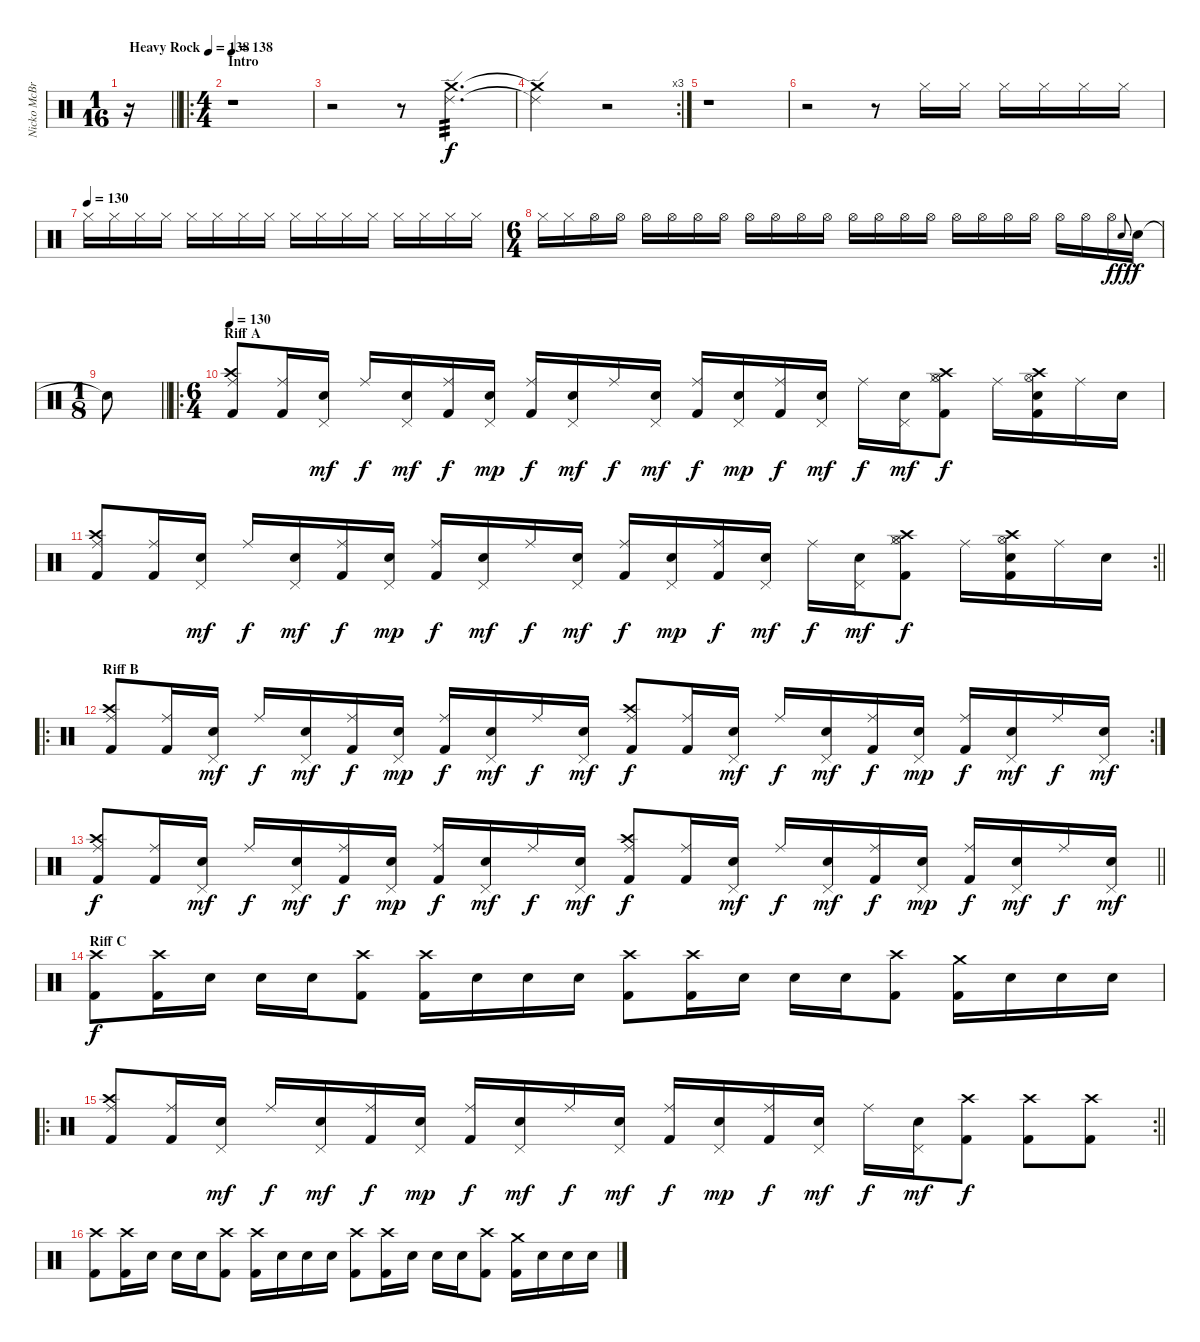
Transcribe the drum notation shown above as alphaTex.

\track ("Nicko McBrain" "Nicko McBr") {instrument percussion}
\staff {score}
\articulation defaults
\ts (1 16)
\tempo (138 "Heavy Rock")
\clef neutral
\barLineRight lightlight
\ks c
r.16{dy f} |
\ro
\ts (4 4)
\section ("" "Intro")
\tempo 138
r.1 |
r.2{volume 3} r.8 ("Ride (edge) 2" "Crash medium (hit)").4{d tp 3 volume 12} |
\rc 3
("Ride (edge) 2"{t} "Crash medium (hit)"{t}).2 r.2 |
r.1 |
r.2{volume 10} r.8 "Hi-Hat (closed)".16{volume 14} "Hi-Hat (closed)".16 "Hi-Hat (closed)".16 "Hi-Hat (closed)".16 "Hi-Hat (closed)".16 "Hi-Hat (closed)".16 |
\tempo (130)
"Hi-Hat (closed)".16 "Hi-Hat (closed)".16 "Hi-Hat (closed)".16 "Hi-Hat (closed)".16 "Hi-Hat (closed)".16 "Hi-Hat (closed)".16 "Hi-Hat (closed)".16 "Hi-Hat (closed)".16 "Hi-Hat (closed)".16 "Hi-Hat (closed)".16 "Hi-Hat (closed)".16 "Hi-Hat (closed)".16 "Hi-Hat (closed)".16 "Hi-Hat (closed)".16 "Hi-Hat (closed)".16 "Hi-Hat (closed)".16 |
\ts (6 4)
"Hi-Hat (closed)".16{volume 14} "Hi-Hat (closed)".16 "Hi-Hat (open)".16 "Hi-Hat (open)".16 "Hi-Hat (open)".16 "Hi-Hat (open)".16 "Hi-Hat (open)".16 "Hi-Hat (open)".16 "Hi-Hat (open)".16 "Hi-Hat (open)".16 "Hi-Hat (open)".16 "Hi-Hat (open)".16 "Hi-Hat (open)".16 "Hi-Hat (open)".16 "Hi-Hat (open)".16 "Hi-Hat (open)".16 "Hi-Hat (open)".16 "Hi-Hat (open)".16 "Hi-Hat (open)".16 "Hi-Hat (open)".16 "Hi-Hat (open)".16 "Hi-Hat (open)".16 "Hi-Hat (open)".16 "Snare (hit) 2".8{gr onbeat dy fff} "Snare (hit) 2".16{dy f} |
\ts (1 8)
\barLineRight lightlight "Snare (hit) 2"{t}.8
|
\ro
\ts (6 4)
\section ("" "Riff A")
\tempo 130
("Ride (middle)" "Crash high (hit)" "Kick (hit) 2").8 ("Ride (middle)" "Kick (hit) 2").16 ("Pedal Hi-Hat (hit)" "Snare (hit) 2").16{dy mf} "Ride (middle)".16{dy f} ("Pedal Hi-Hat (hit)" "Snare (hit) 2").16{dy mf} ("Ride (middle)" "Kick (hit) 2").16{dy f} ("Pedal Hi-Hat (hit)" "Snare (hit) 2").16{dy mp} ("Ride (middle)" "Kick (hit) 2").16{dy f} ("Pedal Hi-Hat (hit)" "Snare (hit) 2").16{dy mf} "Ride (middle)".16{dy f} ("Pedal Hi-Hat (hit)" "Snare (hit) 2").16{dy mf} ("Ride (middle)" "Kick (hit) 2").16{dy f} ("Pedal Hi-Hat (hit)" "Snare (hit) 2").16{dy mp} ("Ride (middle)" "Kick (hit) 2").16{dy f} ("Pedal Hi-Hat (hit)" "Snare (hit) 2").16{dy mf} "Ride (middle)".16{dy f} ("Pedal Hi-Hat (hit)" "Snare (hit) 2").16{dy mf} ("Hi-Hat (open)" "Hi-Hat (closed)" "Crash high (hit)" "Kick (hit) 2").8{dy f} "Ride (middle)".16 ("Hi-Hat (open)" "Snare (hit) 2" "Crash high (hit)" "Kick (hit) 2").16 "Ride (middle)".16 "Snare (hit) 2".16 |
\rc 2
\barLineRight lightlight
("Ride (middle)" "Crash high (hit)" "Kick (hit) 2").8 ("Ride (middle)" "Kick (hit) 2").16 ("Pedal Hi-Hat (hit)" "Snare (hit) 2").16{dy mf} "Ride (middle)".16{dy f} ("Pedal Hi-Hat (hit)" "Snare (hit) 2").16{dy mf} ("Ride (middle)" "Kick (hit) 2").16{dy f} ("Pedal Hi-Hat (hit)" "Snare (hit) 2").16{dy mp} ("Ride (middle)" "Kick (hit) 2").16{dy f} ("Pedal Hi-Hat (hit)" "Snare (hit) 2").16{dy mf} "Ride (middle)".16{dy f} ("Pedal Hi-Hat (hit)" "Snare (hit) 2").16{dy mf} ("Ride (middle)" "Kick (hit) 2").16{dy f} ("Pedal Hi-Hat (hit)" "Snare (hit) 2").16{dy mp} ("Ride (middle)" "Kick (hit) 2").16{dy f} ("Pedal Hi-Hat (hit)" "Snare (hit) 2").16{dy mf} "Ride (middle)".16{dy f} ("Pedal Hi-Hat (hit)" "Snare (hit) 2").16{dy mf} ("Hi-Hat (open)" "Hi-Hat (closed)" "Crash high (hit)" "Kick (hit) 2").8{dy f} "Ride (middle)".16 ("Hi-Hat (open)" "Snare (hit) 2" "Crash high (hit)" "Kick (hit) 2").16 "Ride (middle)".16 "Snare (hit) 2".16 |
\ro
\rc 2
\section ("" "Riff B")
("Ride (middle)" "Crash high (hit)" "Kick (hit) 2").8 ("Ride (middle)" "Kick (hit) 2").16 ("Pedal Hi-Hat (hit)" "Snare (hit) 2").16{dy mf} "Ride (middle)".16{dy f} ("Pedal Hi-Hat (hit)" "Snare (hit) 2").16{dy mf} ("Ride (middle)" "Kick (hit) 2").16{dy f} ("Pedal Hi-Hat (hit)" "Snare (hit) 2").16{dy mp} ("Ride (middle)" "Kick (hit) 2").16{dy f} ("Pedal Hi-Hat (hit)" "Snare (hit) 2").16{dy mf} "Ride (middle)".16{dy f} ("Pedal Hi-Hat (hit)" "Snare (hit) 2").16{dy mf} ("Ride (middle)" "Crash high (hit)" "Kick (hit) 2").8{dy f} ("Ride (middle)" "Kick (hit) 2").16 ("Pedal Hi-Hat (hit)" "Snare (hit) 2").16{dy mf} "Ride (middle)".16{dy f} ("Pedal Hi-Hat (hit)" "Snare (hit) 2").16{dy mf} ("Ride (middle)" "Kick (hit) 2").16{dy f} ("Pedal Hi-Hat (hit)" "Snare (hit) 2").16{dy mp} ("Ride (middle)" "Kick (hit) 2").16{dy f} ("Pedal Hi-Hat (hit)" "Snare (hit) 2").16{dy mf} "Ride (middle)".16{dy f} ("Pedal Hi-Hat (hit)" "Snare (hit) 2").16{dy mf} |
\barLineRight lightlight
("Ride (middle)" "Crash high (hit)" "Kick (hit) 2").8{dy f} ("Ride (middle)" "Kick (hit) 2").16 ("Pedal Hi-Hat (hit)" "Snare (hit) 2").16{dy mf} "Ride (middle)".16{dy f} ("Pedal Hi-Hat (hit)" "Snare (hit) 2").16{dy mf} ("Ride (middle)" "Kick (hit) 2").16{dy f} ("Pedal Hi-Hat (hit)" "Snare (hit) 2").16{dy mp} ("Ride (middle)" "Kick (hit) 2").16{dy f} ("Pedal Hi-Hat (hit)" "Snare (hit) 2").16{dy mf} "Ride (middle)".16{dy f} ("Pedal Hi-Hat (hit)" "Snare (hit) 2").16{dy mf} ("Ride (middle)" "Crash high (hit)" "Kick (hit) 2").8{dy f} ("Ride (middle)" "Kick (hit) 2").16 ("Pedal Hi-Hat (hit)" "Snare (hit) 2").16{dy mf} "Ride (middle)".16{dy f} ("Pedal Hi-Hat (hit)" "Snare (hit) 2").16{dy mf} ("Ride (middle)" "Kick (hit) 2").16{dy f} ("Pedal Hi-Hat (hit)" "Snare (hit) 2").16{dy mp} ("Ride (middle)" "Kick (hit) 2").16{dy f} ("Pedal Hi-Hat (hit)" "Snare (hit) 2").16{dy mf} "Ride (middle)".16{dy f} ("Pedal Hi-Hat (hit)" "Snare (hit) 2").16{dy mf} |
\section ("" "Riff C")
("Crash high (hit)" "Kick (hit) 2").8{dy f} ("Crash high (hit)" "Kick (hit) 2").16 "Snare (hit) 2".16 "Snare (hit) 2".16 "Snare (hit) 2".16 ("Crash high (hit)" "Kick (hit) 2").8 ("Crash high (hit)" "Kick (hit) 2").16 "Snare (hit) 2".16 "Snare (hit) 2".16 "Snare (hit) 2".16 ("Crash high (hit)" "Kick (hit) 2").8 ("Crash high (hit)" "Kick (hit) 2").16 "Snare (hit) 2".16 "Snare (hit) 2".16 "Snare (hit) 2".16 ("Crash high (hit)" "Kick (hit) 2").8 ("Crash medium (hit)" "Kick (hit) 2").16 "Snare (hit) 2".16 "Snare (hit) 2".16 "Snare (hit) 2".16 |
\ro
\rc 2
\barLineRight lightlight
("Ride (middle)" "Crash high (hit)" "Kick (hit) 2").8 ("Ride (middle)" "Kick (hit) 2").16 ("Pedal Hi-Hat (hit)" "Snare (hit) 2").16{dy mf} "Ride (middle)".16{dy f} ("Pedal Hi-Hat (hit)" "Snare (hit) 2").16{dy mf} ("Ride (middle)" "Kick (hit) 2").16{dy f} ("Pedal Hi-Hat (hit)" "Snare (hit) 2").16{dy mp} ("Ride (middle)" "Kick (hit) 2").16{dy f} ("Pedal Hi-Hat (hit)" "Snare (hit) 2").16{dy mf} "Ride (middle)".16{dy f} ("Pedal Hi-Hat (hit)" "Snare (hit) 2").16{dy mf} ("Ride (middle)" "Kick (hit) 2").16{dy f} ("Pedal Hi-Hat (hit)" "Snare (hit) 2").16{dy mp} ("Ride (middle)" "Kick (hit) 2").16{dy f} ("Pedal Hi-Hat (hit)" "Snare (hit) 2").16{dy mf} "Ride (middle)".16{dy f} ("Pedal Hi-Hat (hit)" "Snare (hit) 2").16{dy mf} ("Crash high (hit)" "Kick (hit) 2").8{dy f} ("Crash high (hit)" "Kick (hit) 2").8 ("Crash high (hit)" "Kick (hit) 2").8 |
("Crash high (hit)" "Kick (hit) 2").8 ("Crash high (hit)" "Kick (hit) 2").16 "Snare (hit) 2".16 "Snare (hit) 2".16 "Snare (hit) 2".16 ("Crash high (hit)" "Kick (hit) 2").8 ("Crash high (hit)" "Kick (hit) 2").16 "Snare (hit) 2".16 "Snare (hit) 2".16 "Snare (hit) 2".16 ("Crash high (hit)" "Kick (hit) 2").8 ("Crash high (hit)" "Kick (hit) 2").16 "Snare (hit) 2".16 "Snare (hit) 2".16 "Snare (hit) 2".16 ("Crash high (hit)" "Kick (hit) 2").8 ("Crash medium (hit)" "Kick (hit) 2").16 "Snare (hit) 2".16 "Snare (hit) 2".16 "Snare (hit) 2".16
